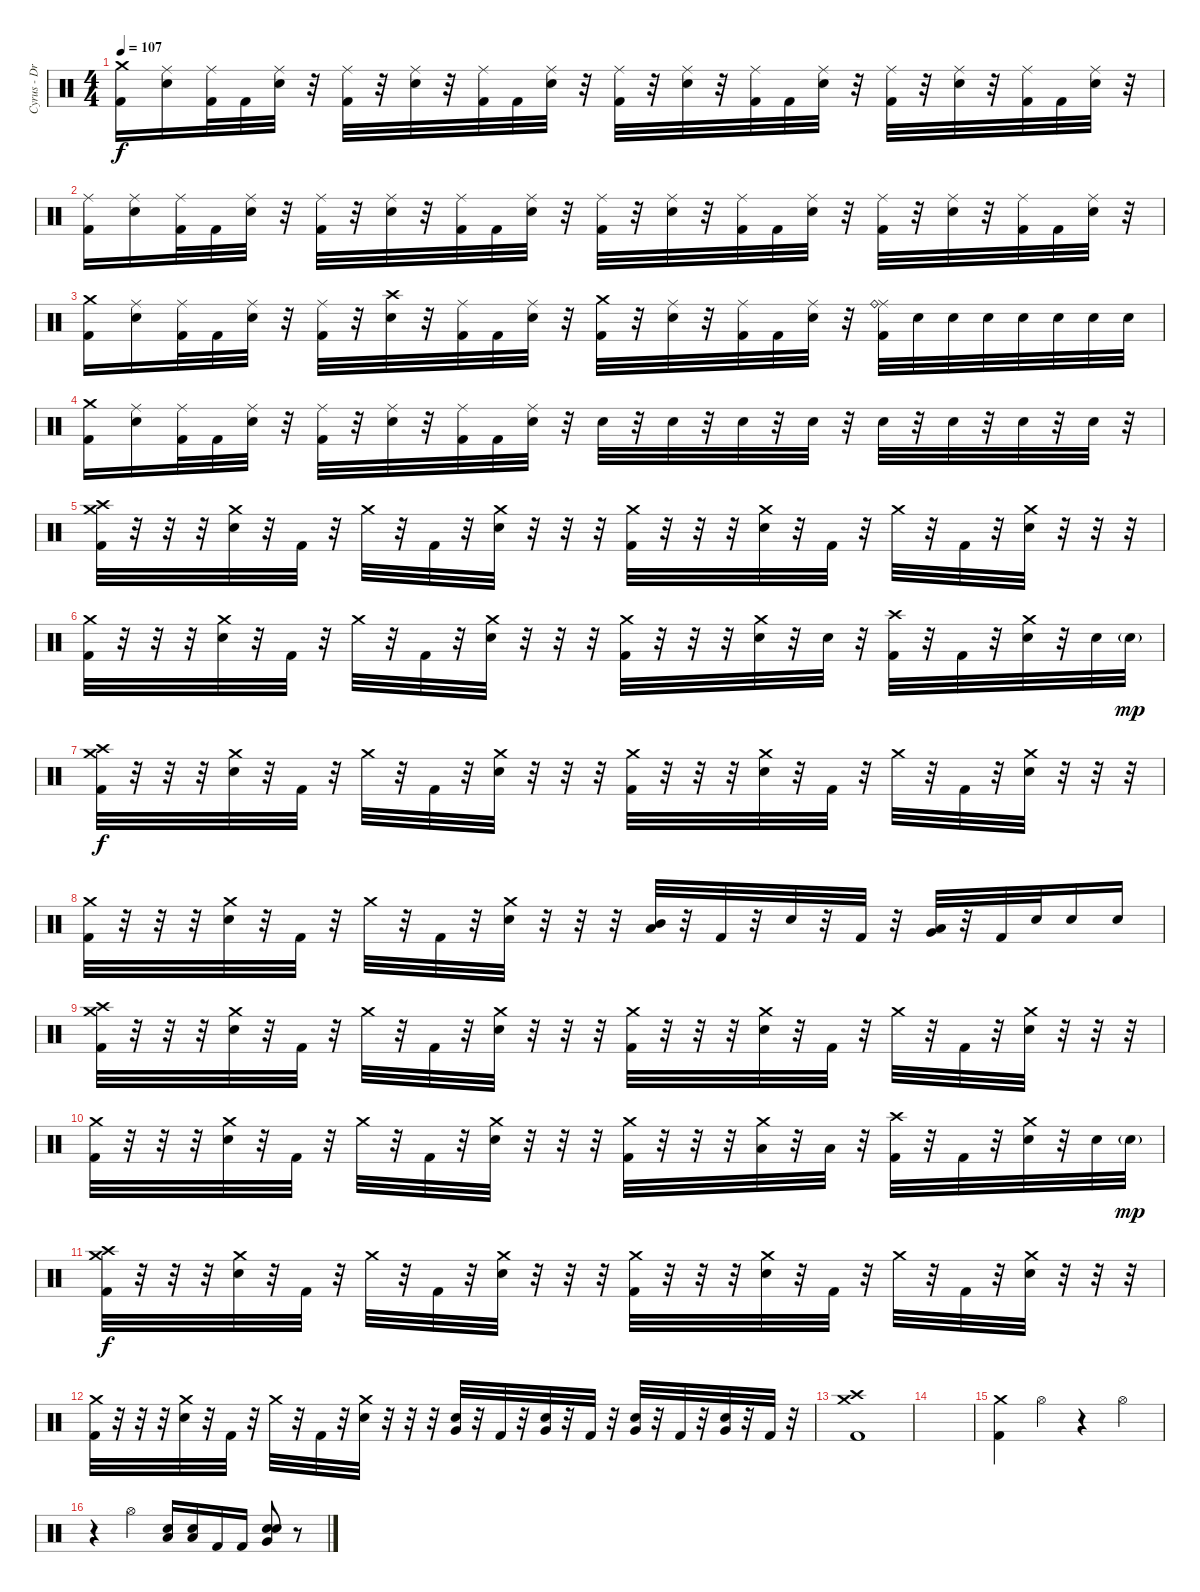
\track ("Cyrus - Drums" "Cyrus - Dr") {instrument percussion}
\staff {score}
\articulation defaults
\ts (4 4)
\tempo 107
\clef neutral
\ks c
("Crash medium (hit)" "Kick (hit) 2").16{dy f} ("Ride (middle)" "Electric Snare (hit)").16 ("Ride (middle)" "Kick (hit) 2").32 "Kick (hit) 2".32 ("Ride (middle)" "Electric Snare (hit)").32 r.32 ("Ride (middle)" "Kick (hit) 2").32 r.32 ("Ride (middle)" "Electric Snare (hit)").32 r.32 ("Ride (middle)" "Kick (hit) 2").32 "Kick (hit) 2".32 ("Ride (middle)" "Electric Snare (hit)").32 r.32 ("Ride (middle)" "Kick (hit) 2").32 r.32 ("Ride (middle)" "Electric Snare (hit)").32 r.32 ("Ride (middle)" "Kick (hit) 2").32 "Kick (hit) 2".32 ("Ride (middle)" "Electric Snare (hit)").32 r.32 ("Ride (middle)" "Kick (hit) 2").32 r.32 ("Ride (middle)" "Electric Snare (hit)").32 r.32 ("Ride (middle)" "Kick (hit) 2").32 "Kick (hit) 2".32 ("Ride (middle)" "Electric Snare (hit)").32 r.32 |
("Ride (middle)" "Kick (hit) 2").16 ("Ride (middle)" "Electric Snare (hit)").16 ("Ride (middle)" "Kick (hit) 2").32 "Kick (hit) 2".32 ("Ride (middle)" "Electric Snare (hit)").32 r.32 ("Ride (middle)" "Kick (hit) 2").32 r.32 ("Ride (middle)" "Electric Snare (hit)").32 r.32 ("Ride (middle)" "Kick (hit) 2").32 "Kick (hit) 2".32 ("Ride (middle)" "Electric Snare (hit)").32 r.32 ("Ride (middle)" "Kick (hit) 2").32 r.32 ("Ride (middle)" "Electric Snare (hit)").32 r.32 ("Ride (middle)" "Kick (hit) 2").32 "Kick (hit) 2".32 ("Ride (middle)" "Electric Snare (hit)").32 r.32 ("Ride (middle)" "Kick (hit) 2").32 r.32 ("Ride (middle)" "Electric Snare (hit)").32 r.32 ("Ride (middle)" "Kick (hit) 2").32 "Kick (hit) 2".32 ("Ride (middle)" "Electric Snare (hit)").32 r.32 |
("Crash medium (hit)" "Kick (hit) 2").16 ("Ride (middle)" "Electric Snare (hit)").16 ("Ride (middle)" "Kick (hit) 2").32 "Kick (hit) 2".32 ("Ride (middle)" "Electric Snare (hit)").32 r.32 ("Ride (middle)" "Kick (hit) 2").32 r.32 ("Crash high (hit)" "Electric Snare (hit)").32 r.32 ("Ride (middle)" "Kick (hit) 2").32 "Kick (hit) 2".32 ("Ride (middle)" "Electric Snare (hit)").32 r.32 ("Crash medium (hit)" "Kick (hit) 2").32 r.32 ("Ride (middle)" "Electric Snare (hit)").32 r.32 ("Ride (middle)" "Kick (hit) 2").32 "Kick (hit) 2".32 ("Ride (middle)" "Electric Snare (hit)").32 r.32 ("Ride (middle)" "Ride (bell)" "Kick (hit) 2").32 "Electric Snare (hit)".32 "Electric Snare (hit)".32 "Electric Snare (hit)".32 "Electric Snare (hit)".32 "Electric Snare (hit)".32 "Electric Snare (hit)".32 "Electric Snare (hit)".32 |
("Crash medium (hit)" "Kick (hit) 2").16 ("Ride (middle)" "Electric Snare (hit)").16 ("Ride (middle)" "Kick (hit) 2").32 "Kick (hit) 2".32 ("Ride (middle)" "Electric Snare (hit)").32 r.32 ("Ride (middle)" "Kick (hit) 2").32 r.32 ("Ride (middle)" "Electric Snare (hit)").32 r.32 ("Ride (middle)" "Kick (hit) 2").32 "Kick (hit) 2".32 ("Ride (middle)" "Electric Snare (hit)").32 r.32 "Electric Snare (hit)".32 r.32 "Electric Snare (hit)".32 r.32 "Electric Snare (hit)".32 r.32 "Electric Snare (hit)".32 r.32 "Electric Snare (hit)".32 r.32 "Electric Snare (hit)".32 r.32 "Electric Snare (hit)".32 r.32 "Electric Snare (hit)".32 r.32 |
("Crash medium (hit)" "Crash high (hit)" "Kick (hit) 2").32 r.32 r.32 r.32 ("Crash medium (hit)" "Electric Snare (hit)").32 r.32 "Kick (hit) 2".32 r.32 "Crash medium (hit)".32 r.32 "Kick (hit) 2".32 r.32 ("Crash medium (hit)" "Electric Snare (hit)").32 r.32 r.32 r.32 ("Crash medium (hit)" "Kick (hit) 2").32 r.32 r.32 r.32 ("Crash medium (hit)" "Electric Snare (hit)").32 r.32 "Kick (hit) 2".32 r.32 "Crash medium (hit)".32 r.32 "Kick (hit) 2".32 r.32 ("Crash medium (hit)" "Electric Snare (hit)").32 r.32 r.32 r.32 |
("Crash medium (hit)" "Kick (hit) 2").32 r.32 r.32 r.32 ("Crash medium (hit)" "Electric Snare (hit)").32 r.32 "Kick (hit) 2".32 r.32 "Crash medium (hit)".32 r.32 "Kick (hit) 2".32 r.32 ("Crash medium (hit)" "Electric Snare (hit)").32 r.32 r.32 r.32 ("Crash medium (hit)" "Kick (hit) 2").32 r.32 r.32 r.32 ("Crash medium (hit)" "Electric Snare (hit)").32 r.32 "Electric Snare (hit)".32 r.32 ("Crash high (hit)" "Kick (hit) 2").32 r.32 "Kick (hit) 2".32 r.32 ("Crash medium (hit)" "Electric Snare (hit)").32 r.32 "Electric Snare (hit)".32 "Electric Snare (hit)"{g}.32{dy mp} |
("Crash medium (hit)" "Crash high (hit)" "Kick (hit) 2").32{dy f} r.32 r.32 r.32 ("Crash medium (hit)" "Electric Snare (hit)").32 r.32 "Kick (hit) 2".32 r.32 "Crash medium (hit)".32 r.32 "Kick (hit) 2".32 r.32 ("Crash medium (hit)" "Electric Snare (hit)").32 r.32 r.32 r.32 ("Crash medium (hit)" "Kick (hit) 2").32 r.32 r.32 r.32 ("Crash medium (hit)" "Electric Snare (hit)").32 r.32 "Kick (hit) 2".32 r.32 "Crash medium (hit)".32 r.32 "Kick (hit) 2".32 r.32 ("Crash medium (hit)" "Electric Snare (hit)").32 r.32 r.32 r.32 |
("Crash medium (hit)" "Kick (hit) 2").32 r.32 r.32 r.32 ("Crash medium (hit)" "Electric Snare (hit)").32 r.32 "Kick (hit) 2".32 r.32 "Crash medium (hit)".32 r.32 "Kick (hit) 2".32 r.32 ("Crash medium (hit)" "Electric Snare (hit)").32 r.32 r.32 r.32 ("Mid Tom (hit)" "Low Tom (hit)").32 r.32 "Kick (hit) 2".32 r.32 "Electric Snare (hit)".32 r.32 "Kick (hit) 2".32 r.32 ("Low Tom (hit)" "Very Low Tom (hit)").32 r.32 "Kick (hit) 2".32 "Electric Snare (hit)".32 "Electric Snare (hit)".16 "Electric Snare (hit)".16 |
("Crash medium (hit)" "Crash high (hit)" "Kick (hit) 2").32 r.32 r.32 r.32 ("Crash medium (hit)" "Electric Snare (hit)").32 r.32 "Kick (hit) 2".32 r.32 "Crash medium (hit)".32 r.32 "Kick (hit) 2".32 r.32 ("Crash medium (hit)" "Electric Snare (hit)").32 r.32 r.32 r.32 ("Crash medium (hit)" "Kick (hit) 2").32 r.32 r.32 r.32 ("Crash medium (hit)" "Electric Snare (hit)").32 r.32 "Kick (hit) 2".32 r.32 "Crash medium (hit)".32 r.32 "Kick (hit) 2".32 r.32 ("Crash medium (hit)" "Electric Snare (hit)").32 r.32 r.32 r.32 |
("Crash medium (hit)" "Kick (hit) 2").32 r.32 r.32 r.32 ("Crash medium (hit)" "Electric Snare (hit)").32 r.32 "Kick (hit) 2".32 r.32 "Crash medium (hit)".32 r.32 "Kick (hit) 2".32 r.32 ("Crash medium (hit)" "Electric Snare (hit)").32 r.32 r.32 r.32 ("Crash medium (hit)" "Kick (hit) 2").32 r.32 r.32 r.32 ("Crash medium (hit)" "Low Tom (hit)").32 r.32 "Low Tom (hit)".32 r.32 ("Crash high (hit)" "Kick (hit) 2").32 r.32 "Kick (hit) 2".32 r.32 ("Crash medium (hit)" "Electric Snare (hit)").32 r.32 "Electric Snare (hit)".32 "Electric Snare (hit)"{g}.32{dy mp} |
("Crash medium (hit)" "Crash high (hit)" "Kick (hit) 2").32{dy f} r.32 r.32 r.32 ("Crash medium (hit)" "Electric Snare (hit)").32 r.32 "Kick (hit) 2".32 r.32 "Crash medium (hit)".32 r.32 "Kick (hit) 2".32 r.32 ("Crash medium (hit)" "Electric Snare (hit)").32 r.32 r.32 r.32 ("Crash medium (hit)" "Kick (hit) 2").32 r.32 r.32 r.32 ("Crash medium (hit)" "Electric Snare (hit)").32 r.32 "Kick (hit) 2".32 r.32 "Crash medium (hit)".32 r.32 "Kick (hit) 2".32 r.32 ("Crash medium (hit)" "Electric Snare (hit)").32 r.32 r.32 r.32 |
("Crash medium (hit)" "Kick (hit) 2").32 r.32 r.32 r.32 ("Crash medium (hit)" "Electric Snare (hit)").32 r.32 "Kick (hit) 2".32 r.32 "Crash medium (hit)".32 r.32 "Kick (hit) 2".32 r.32 ("Crash medium (hit)" "Electric Snare (hit)").32 r.32 r.32 r.32 ("Very Low Tom (hit)" "Electric Snare (hit)").32 r.32 "Kick (hit) 2".32 r.32 ("Very Low Tom (hit)" "Electric Snare (hit)").32 r.32 "Kick (hit) 2".32 r.32 ("Very Low Tom (hit)" "Electric Snare (hit)").32 r.32 "Kick (hit) 2".32 r.32 ("Very Low Tom (hit)" "Electric Snare (hit)").32 r.32 "Kick (hit) 2".32 r.32 |
("Crash medium (hit)" "Crash high (hit)" "Kick (hit) 2").1 |
|
("Crash medium (hit)" "Kick (hit) 2").4 "Hi-Hat (open)".4 r.4 "Hi-Hat (open)".4 |
r.4 "Hi-Hat (open)".4 ("Low Tom (hit)" "Electric Snare (hit)").16 ("Low Tom (hit)" "Electric Snare (hit)").16 "Kick (hit) 2".16 "Kick (hit) 2".16 ("Electric Snare (hit)" "Very Low Tom (hit)" "Electric Snare (hit)").8 r.8
